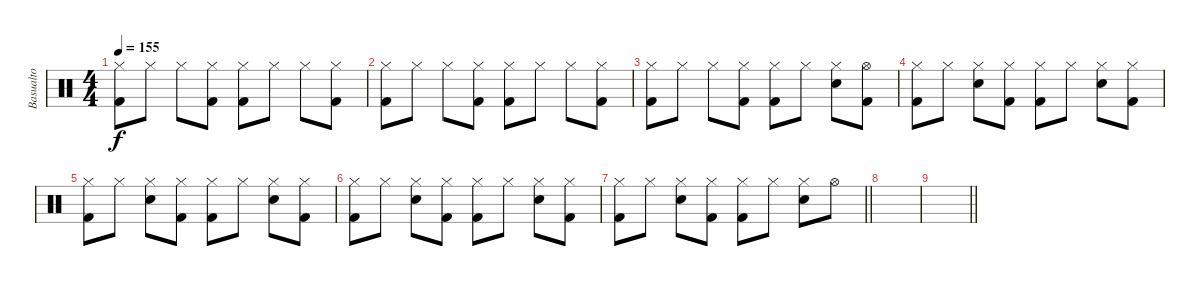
\track ("Basualto" "Basualto") {instrument percussion}
\staff {score}
\articulation defaults
\ts (4 4)
\tempo 155
\clef neutral
\ks c
("Hi-Hat (closed)" "Kick (hit) 2").8{dy f} "Hi-Hat (closed)".8 "Hi-Hat (closed)".8 ("Hi-Hat (closed)" "Kick (hit) 2").8 ("Hi-Hat (closed)" "Kick (hit) 2").8 "Hi-Hat (closed)".8 "Hi-Hat (closed)".8 ("Hi-Hat (closed)" "Kick (hit) 2").8 |
("Hi-Hat (closed)" "Kick (hit) 2").8 "Hi-Hat (closed)".8 "Hi-Hat (closed)".8 ("Hi-Hat (closed)" "Kick (hit) 2").8 ("Hi-Hat (closed)" "Kick (hit) 2").8 "Hi-Hat (closed)".8 "Hi-Hat (closed)".8 ("Hi-Hat (closed)" "Kick (hit) 2").8 |
("Hi-Hat (closed)" "Kick (hit) 2").8 "Hi-Hat (closed)".8 "Hi-Hat (closed)".8 ("Hi-Hat (closed)" "Kick (hit) 2").8 ("Hi-Hat (closed)" "Kick (hit) 2").8 "Hi-Hat (closed)".8 ("Hi-Hat (closed)" "Electric Snare (hit)").8 ("Hi-Hat (open)" "Kick (hit) 2").8 |
("Hi-Hat (closed)" "Kick (hit) 2").8 "Hi-Hat (closed)".8 ("Hi-Hat (closed)" "Electric Snare (hit)").8 ("Hi-Hat (closed)" "Kick (hit) 2").8 ("Hi-Hat (closed)" "Kick (hit) 2").8 "Hi-Hat (closed)".8 ("Hi-Hat (closed)" "Electric Snare (hit)").8 ("Hi-Hat (closed)" "Kick (hit) 2").8 |
("Hi-Hat (closed)" "Kick (hit) 2").8 "Hi-Hat (closed)".8 ("Hi-Hat (closed)" "Electric Snare (hit)").8 ("Hi-Hat (closed)" "Kick (hit) 2").8 ("Hi-Hat (closed)" "Kick (hit) 2").8 "Hi-Hat (closed)".8 ("Hi-Hat (closed)" "Electric Snare (hit)").8 ("Hi-Hat (closed)" "Kick (hit) 2").8 |
("Hi-Hat (closed)" "Kick (hit) 2").8 "Hi-Hat (closed)".8 ("Hi-Hat (closed)" "Electric Snare (hit)").8 ("Hi-Hat (closed)" "Kick (hit) 2").8 ("Hi-Hat (closed)" "Kick (hit) 2").8 "Hi-Hat (closed)".8 ("Hi-Hat (closed)" "Electric Snare (hit)").8 ("Hi-Hat (closed)" "Kick (hit) 2").8 |
\barLineRight lightlight
("Hi-Hat (closed)" "Kick (hit) 2").8 "Hi-Hat (closed)".8 ("Hi-Hat (closed)" "Electric Snare (hit)").8 ("Hi-Hat (closed)" "Kick (hit) 2").8 ("Hi-Hat (closed)" "Kick (hit) 2").8 "Hi-Hat (closed)".8 ("Hi-Hat (closed)" "Electric Snare (hit)").8 "Hi-Hat (open)".8 |
|
\barLineRight lightlight
